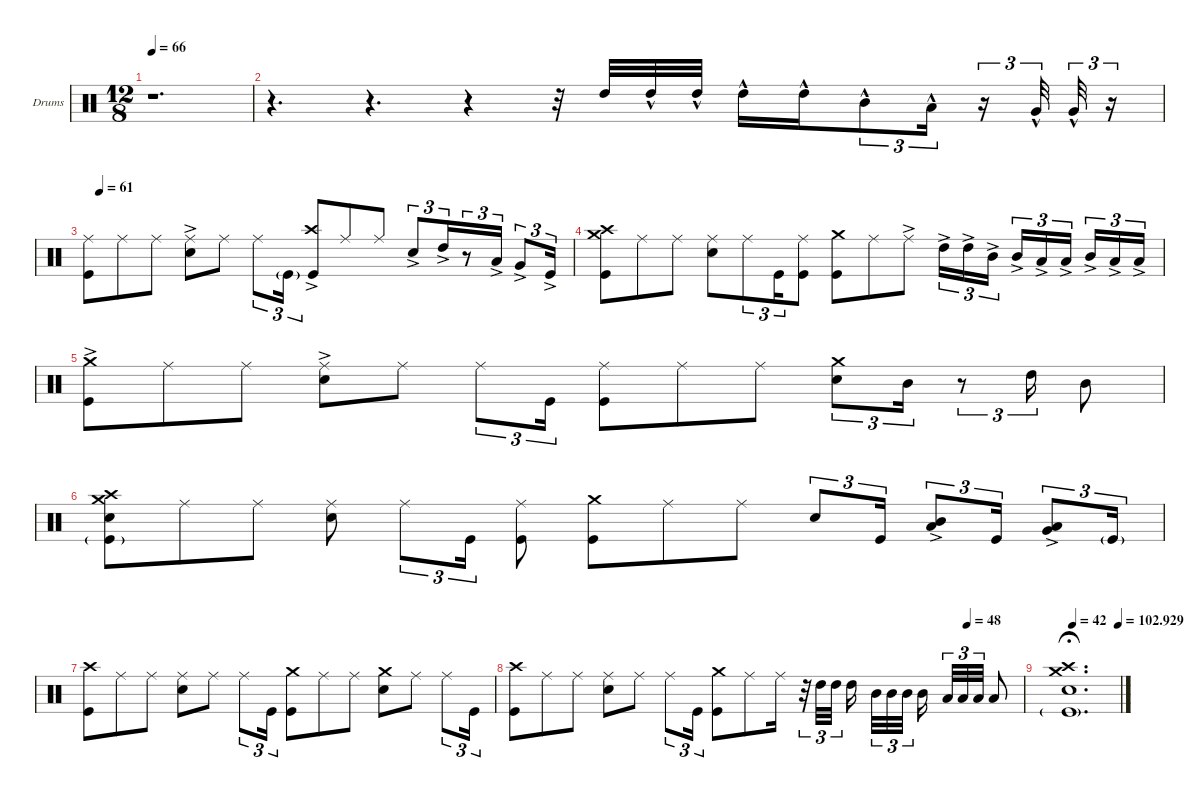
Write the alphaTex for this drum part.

\hideDynamics
\bracketExtendMode groupsimilarinstruments
\firstSystemTrackNameOrientation horizontal
\otherSystemsTrackNameOrientation horizontal
\track ("Drumkit" "Drums") {multiBarRest instrument percussion}
\staff {score}
\articulation defaults
\ts (12 8)
\tempo 66
\clef neutral
\scale 0
\ks c
r.1{d dy f} |
r.4{d} r.4{d} r.4{beam merge} r.32{beam merge} "High Tom (hit)".32{beam invert beam merge} "High Tom (hit)"{hac}.32{beam merge} "High Tom (hit)"{hac}.32{beam split} "High Tom (hit)"{hac}.16 "High Tom (hit)"{hac}.16{beam merge} "Mid Tom (hit)"{hac}.8{tu (3 2)} "Low Tom (hit)"{hac}.16{tu (3 2)} r.16{tu (3 2)} "Very Low Tom (hit)"{hac}.32{tu (3 2)} "Very Low Tom (hit)"{hac}.32{tu (3 2)} r.16{tu (3 2)} |
\tempo (61 0.025)
("Kick (hit)" "Ride (middle)").8 "Ride (middle)".8 "Ride (middle)".8 ("Ride (middle)"{ac} "Snare (hit) 2").8 "Ride (middle)".8 "Ride (middle)".8{tu (3 2)} "Kick (hit)"{g}.16{tu (3 2)} ("Kick (hit)"{ac} "Crash high (hit)").8 "Ride (middle)".8 "Ride (middle)".8 "Snare (hit) 2"{ac}.8{tu (3 2) beam invert beam merge} "High Tom (hit)"{ac}.16{tu (3 2) beam merge} r.8{tu (3 2) beam merge} "Low Tom (hit)"{ac}.16{tu (3 2)} "Very Low Tom (hit)"{ac}.8{tu (3 2)} "Kick (hit)"{ac}.16{tu (3 2)} |
("Crash medium (hit)" "Crash high (hit)" "Kick (hit)").8 "Ride (middle)".8 "Ride (middle)".8 ("Snare (hit) 2" "Ride (middle)").8{beam merge} "Ride (middle)".8{tu (3 2) beam merge} "Kick (hit)".16{tu (3 2) beam merge} ("Kick (hit)" "Ride (middle)").8{beam split} ("Crash medium (hit)" "Kick (hit)").8{beam merge} "Ride (middle)".8 "Ride (middle)"{ac}.8 "High Tom (hit)"{ac}.16{tu (3 2) beam merge} "High Tom (hit)"{ac}.16{tu (3 2)} "Mid Tom (hit)"{ac}.16{tu (3 2) beam splitsecondary} "Mid Tom (hit)"{ac}.16{tu (3 2)} "Low Tom (hit)"{ac}.16{tu (3 2) beam merge} "Low Tom (hit)"{ac}.16{tu (3 2) beam splitsecondary} "Mid Tom (hit)"{ac}.16{tu (3 2) beam merge} "Low Tom (hit)"{ac}.16{tu (3 2)} "Low Tom (hit)"{ac}.16{tu (3 2)} |
("Crash medium (hit)" "Kick (hit)"{ac}).8 "Ride (middle)".8 "Ride (middle)".8 ("Ride (middle)" "Snare (hit) 2"{ac}).8 "Ride (middle)".8 "Ride (middle)".8{tu (3 2)} "Kick (hit)".16{tu (3 2)} ("Kick (hit)" "Ride (middle)").8 "Ride (middle)".8 "Ride (middle)".8 ("Crash medium (hit)" "Snare (hit) 2").8{tu (3 2)} "Mid Tom (hit)".16{tu (3 2)} r.8{tu (3 2)} "High Tom (hit)".16{tu (3 2)} "Mid Tom (hit)".8 |
("Kick (hit)"{g} "Snare (hit) 2" "Crash medium (hit)" "Crash high (hit)").8 "Ride (middle)".8 "Ride (middle)".8 ("Ride (middle)" "Snare (hit) 2").8 "Ride (middle)".8{tu (3 2)} "Kick (hit)".16{tu (3 2)} ("Kick (hit)" "Ride (middle)").8 ("Kick (hit)" "Crash medium (hit)").8 "Ride (middle)".8 "Ride (middle)".8 "Snare (hit) 2".8{tu (3 2)} "Kick (hit)".16{tu (3 2)} ("Mid Tom (hit)"{ac} "Low Tom (hit)").8{tu (3 2)} "Kick (hit)".16{tu (3 2)} ("Very Low Tom (hit)"{ac} "Low Tom (hit)").8{tu (3 2)} "Kick (hit)"{g}.16{tu (3 2)} |
("Kick (hit)" "Crash high (hit)").8 "Ride (middle)".8 "Ride (middle)".8 ("Snare (hit) 2" "Ride (middle)").8 "Ride (middle)".8 "Ride (middle)".8{tu (3 2)} "Kick (hit)".16{tu (3 2)} ("Kick (hit)" "Crash medium (hit)").8 "Ride (middle)".8 "Ride (middle)".8 ("Snare (hit) 2" "Crash medium (hit)").8 "Ride (middle)".8 "Ride (middle)".8{tu (3 2)} "Kick (hit)".16{tu (3 2)} |
\tempo (48 0.890244)
("Kick (hit)" "Crash high (hit)").8 "Ride (middle)".8 "Ride (middle)".8 ("Snare (hit) 2" "Ride (middle)").8 "Ride (middle)".8 "Ride (middle)".8{tu (3 2)} "Kick (hit)".16{tu (3 2)} ("Kick (hit)" "Crash medium (hit)").8 "Ride (middle)".8 "Ride (middle)".16 r.32{tu (3 2)} "High Tom (hit)".32{tu (3 2)} "High Tom (hit)".32{tu (3 2)} "High Tom (hit)".16 "Mid Tom (hit)".32{tu (3 2)} "Mid Tom (hit)".32{tu (3 2)} "Mid Tom (hit)".32{tu (3 2)} "Mid Tom (hit)".16 "Low Tom (hit)".32{tu (3 2)} "Low Tom (hit)".32{tu (3 2)} "Low Tom (hit)".32{tu (3 2)} "Low Tom (hit)".8 |
\tempo (42 0.219512)
\tempo (102.929 0.975)
("Kick (hit)"{g} "Snare (hit) 2" "Crash medium (hit)" "Crash high (hit)").1{d fermata (medium 0.51)}
